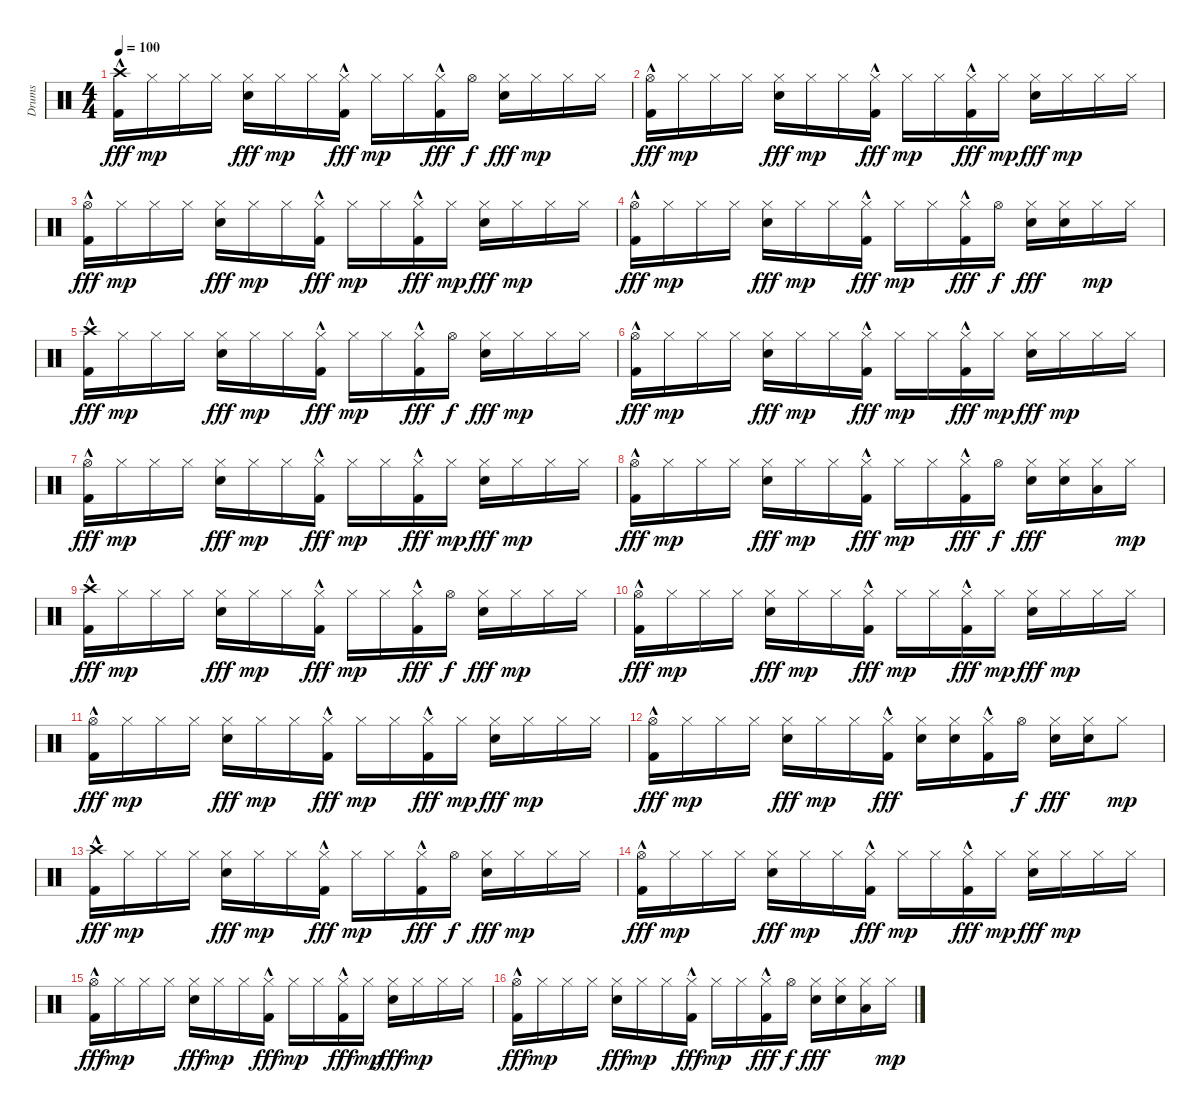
\track ("Drums" "Drums") {instrument percussion}
\staff {score}
\articulation defaults
\ts (4 4)
\tempo 100
\clef neutral
\ks c
("Crash high (hit)" "Kick (hit) 2"{hac}).16{dy fff} "Hi-Hat (closed)".16{dy mp} "Hi-Hat (closed)".16 "Hi-Hat (closed)".16 ("Hi-Hat (closed)" "Snare (hit) 2").16{dy fff} "Hi-Hat (closed)".16{dy mp} "Hi-Hat (closed)".16 ("Hi-Hat (closed)" "Kick (hit) 2"{hac}).16{dy fff} "Hi-Hat (closed)".16{dy mp} "Hi-Hat (closed)".16 ("Hi-Hat (closed)" "Kick (hit) 2"{hac}).16{dy fff} "Hi-Hat (open)".16{dy f} ("Hi-Hat (closed)" "Snare (hit) 2").16{dy fff} "Hi-Hat (closed)".16{dy mp} "Hi-Hat (closed)".16 "Hi-Hat (closed)".16 |
("Hi-Hat (open)" "Kick (hit) 2"{hac}).16{dy fff} "Hi-Hat (closed)".16{dy mp} "Hi-Hat (closed)".16 "Hi-Hat (closed)".16 ("Hi-Hat (closed)" "Snare (hit) 2").16{dy fff} "Hi-Hat (closed)".16{dy mp} "Hi-Hat (closed)".16 ("Hi-Hat (closed)" "Kick (hit) 2"{hac}).16{dy fff} "Hi-Hat (closed)".16{dy mp} "Hi-Hat (closed)".16 ("Hi-Hat (closed)" "Kick (hit) 2"{hac}).16{dy fff} "Hi-Hat (closed)".16{dy mp} ("Hi-Hat (closed)" "Snare (hit) 2").16{dy fff} "Hi-Hat (closed)".16{dy mp} "Hi-Hat (closed)".16 "Hi-Hat (closed)".16 |
("Hi-Hat (open)" "Kick (hit) 2"{hac}).16{dy fff} "Hi-Hat (closed)".16{dy mp} "Hi-Hat (closed)".16 "Hi-Hat (closed)".16 ("Hi-Hat (closed)" "Snare (hit) 2").16{dy fff} "Hi-Hat (closed)".16{dy mp} "Hi-Hat (closed)".16 ("Hi-Hat (closed)" "Kick (hit) 2"{hac}).16{dy fff} "Hi-Hat (closed)".16{dy mp} "Hi-Hat (closed)".16 ("Hi-Hat (closed)" "Kick (hit) 2"{hac}).16{dy fff} "Hi-Hat (closed)".16{dy mp} ("Hi-Hat (closed)" "Snare (hit) 2").16{dy fff} "Hi-Hat (closed)".16{dy mp} "Hi-Hat (closed)".16 "Hi-Hat (closed)".16 |
("Hi-Hat (open)" "Kick (hit) 2"{hac}).16{dy fff} "Hi-Hat (closed)".16{dy mp} "Hi-Hat (closed)".16 "Hi-Hat (closed)".16 ("Hi-Hat (closed)" "Snare (hit) 2").16{dy fff} "Hi-Hat (closed)".16{dy mp} "Hi-Hat (closed)".16 ("Hi-Hat (closed)" "Kick (hit) 2"{hac}).16{dy fff} "Hi-Hat (closed)".16{dy mp} "Hi-Hat (closed)".16 ("Hi-Hat (closed)" "Kick (hit) 2"{hac}).16{dy fff} "Hi-Hat (open)".16{dy f} ("Hi-Hat (closed)" "Snare (hit) 2").16{dy fff} ("Hi-Hat (closed)" "Snare (hit) 2").16 "Hi-Hat (closed)".16{dy mp} "Hi-Hat (closed)".16 |
("Crash high (hit)" "Kick (hit) 2"{hac}).16{dy fff} "Hi-Hat (closed)".16{dy mp} "Hi-Hat (closed)".16 "Hi-Hat (closed)".16 ("Hi-Hat (closed)" "Snare (hit) 2").16{dy fff} "Hi-Hat (closed)".16{dy mp} "Hi-Hat (closed)".16 ("Hi-Hat (closed)" "Kick (hit) 2"{hac}).16{dy fff} "Hi-Hat (closed)".16{dy mp} "Hi-Hat (closed)".16 ("Hi-Hat (closed)" "Kick (hit) 2"{hac}).16{dy fff} "Hi-Hat (open)".16{dy f} ("Hi-Hat (closed)" "Snare (hit) 2").16{dy fff} "Hi-Hat (closed)".16{dy mp} "Hi-Hat (closed)".16 "Hi-Hat (closed)".16 |
("Hi-Hat (open)" "Kick (hit) 2"{hac}).16{dy fff} "Hi-Hat (closed)".16{dy mp} "Hi-Hat (closed)".16 "Hi-Hat (closed)".16 ("Hi-Hat (closed)" "Snare (hit) 2").16{dy fff} "Hi-Hat (closed)".16{dy mp} "Hi-Hat (closed)".16 ("Hi-Hat (closed)" "Kick (hit) 2"{hac}).16{dy fff} "Hi-Hat (closed)".16{dy mp} "Hi-Hat (closed)".16 ("Hi-Hat (closed)" "Kick (hit) 2"{hac}).16{dy fff} "Hi-Hat (closed)".16{dy mp} ("Hi-Hat (closed)" "Snare (hit) 2").16{dy fff} "Hi-Hat (closed)".16{dy mp} "Hi-Hat (closed)".16 "Hi-Hat (closed)".16 |
("Hi-Hat (open)" "Kick (hit) 2"{hac}).16{dy fff} "Hi-Hat (closed)".16{dy mp} "Hi-Hat (closed)".16 "Hi-Hat (closed)".16 ("Hi-Hat (closed)" "Snare (hit) 2").16{dy fff} "Hi-Hat (closed)".16{dy mp} "Hi-Hat (closed)".16 ("Hi-Hat (closed)" "Kick (hit) 2"{hac}).16{dy fff} "Hi-Hat (closed)".16{dy mp} "Hi-Hat (closed)".16 ("Hi-Hat (closed)" "Kick (hit) 2"{hac}).16{dy fff} "Hi-Hat (closed)".16{dy mp} ("Hi-Hat (closed)" "Snare (hit) 2").16{dy fff} "Hi-Hat (closed)".16{dy mp} "Hi-Hat (closed)".16 "Hi-Hat (closed)".16 |
("Hi-Hat (open)" "Kick (hit) 2"{hac}).16{dy fff} "Hi-Hat (closed)".16{dy mp} "Hi-Hat (closed)".16 "Hi-Hat (closed)".16 ("Hi-Hat (closed)" "Snare (hit) 2").16{dy fff} "Hi-Hat (closed)".16{dy mp} "Hi-Hat (closed)".16 ("Hi-Hat (closed)" "Kick (hit) 2"{hac}).16{dy fff} "Hi-Hat (closed)".16{dy mp} "Hi-Hat (closed)".16 ("Hi-Hat (closed)" "Kick (hit) 2"{hac}).16{dy fff} "Hi-Hat (open)".16{dy f} ("Hi-Hat (closed)" "Snare (hit) 2").16{dy fff} ("Hi-Hat (closed)" "Snare (hit) 2").16 ("Hi-Hat (closed)" "Low Floor Tom (hit)").16 "Hi-Hat (closed)".16{dy mp} |
("Crash high (hit)" "Kick (hit) 2"{hac}).16{dy fff} "Hi-Hat (closed)".16{dy mp} "Hi-Hat (closed)".16 "Hi-Hat (closed)".16 ("Hi-Hat (closed)" "Snare (hit) 2").16{dy fff} "Hi-Hat (closed)".16{dy mp} "Hi-Hat (closed)".16 ("Hi-Hat (closed)" "Kick (hit) 2"{hac}).16{dy fff} "Hi-Hat (closed)".16{dy mp} "Hi-Hat (closed)".16 ("Hi-Hat (closed)" "Kick (hit) 2"{hac}).16{dy fff} "Hi-Hat (open)".16{dy f} ("Hi-Hat (closed)" "Snare (hit) 2").16{dy fff} "Hi-Hat (closed)".16{dy mp} "Hi-Hat (closed)".16 "Hi-Hat (closed)".16 |
("Hi-Hat (open)" "Kick (hit) 2"{hac}).16{dy fff} "Hi-Hat (closed)".16{dy mp} "Hi-Hat (closed)".16 "Hi-Hat (closed)".16 ("Hi-Hat (closed)" "Snare (hit) 2").16{dy fff} "Hi-Hat (closed)".16{dy mp} "Hi-Hat (closed)".16 ("Hi-Hat (closed)" "Kick (hit) 2"{hac}).16{dy fff} "Hi-Hat (closed)".16{dy mp} "Hi-Hat (closed)".16 ("Hi-Hat (closed)" "Kick (hit) 2"{hac}).16{dy fff} "Hi-Hat (closed)".16{dy mp} ("Hi-Hat (closed)" "Snare (hit) 2").16{dy fff} "Hi-Hat (closed)".16{dy mp} "Hi-Hat (closed)".16 "Hi-Hat (closed)".16 |
("Hi-Hat (open)" "Kick (hit) 2"{hac}).16{dy fff} "Hi-Hat (closed)".16{dy mp} "Hi-Hat (closed)".16 "Hi-Hat (closed)".16 ("Hi-Hat (closed)" "Snare (hit) 2").16{dy fff} "Hi-Hat (closed)".16{dy mp} "Hi-Hat (closed)".16 ("Hi-Hat (closed)" "Kick (hit) 2"{hac}).16{dy fff} "Hi-Hat (closed)".16{dy mp} "Hi-Hat (closed)".16 ("Hi-Hat (closed)" "Kick (hit) 2"{hac}).16{dy fff} "Hi-Hat (closed)".16{dy mp} ("Hi-Hat (closed)" "Snare (hit) 2").16{dy fff} "Hi-Hat (closed)".16{dy mp} "Hi-Hat (closed)".16 "Hi-Hat (closed)".16 |
("Hi-Hat (open)" "Kick (hit) 2"{hac}).16{dy fff} "Hi-Hat (closed)".16{dy mp} "Hi-Hat (closed)".16 "Hi-Hat (closed)".16 ("Hi-Hat (closed)" "Snare (hit) 2").16{dy fff} "Hi-Hat (closed)".16{dy mp} "Hi-Hat (closed)".16 ("Hi-Hat (closed)" "Kick (hit) 2"{hac}).16{dy fff} ("Hi-Hat (closed)" "Snare (hit) 2").16 ("Hi-Hat (closed)" "Snare (hit) 2").16 ("Hi-Hat (closed)" "Kick (hit) 2"{hac}).16 "Hi-Hat (open)".16{dy f} ("Hi-Hat (closed)" "Snare (hit) 2").16{dy fff} ("Hi-Hat (closed)" "Snare (hit) 2").16 "Hi-Hat (closed)".8{dy mp} |
("Crash high (hit)" "Kick (hit) 2"{hac}).16{dy fff} "Hi-Hat (closed)".16{dy mp} "Hi-Hat (closed)".16 "Hi-Hat (closed)".16 ("Hi-Hat (closed)" "Snare (hit) 2").16{dy fff} "Hi-Hat (closed)".16{dy mp} "Hi-Hat (closed)".16 ("Hi-Hat (closed)" "Kick (hit) 2"{hac}).16{dy fff} "Hi-Hat (closed)".16{dy mp} "Hi-Hat (closed)".16 ("Hi-Hat (closed)" "Kick (hit) 2"{hac}).16{dy fff} "Hi-Hat (open)".16{dy f} ("Hi-Hat (closed)" "Snare (hit) 2").16{dy fff} "Hi-Hat (closed)".16{dy mp} "Hi-Hat (closed)".16 "Hi-Hat (closed)".16 |
("Hi-Hat (open)" "Kick (hit) 2"{hac}).16{dy fff} "Hi-Hat (closed)".16{dy mp} "Hi-Hat (closed)".16 "Hi-Hat (closed)".16 ("Hi-Hat (closed)" "Snare (hit) 2").16{dy fff} "Hi-Hat (closed)".16{dy mp} "Hi-Hat (closed)".16 ("Hi-Hat (closed)" "Kick (hit) 2"{hac}).16{dy fff} "Hi-Hat (closed)".16{dy mp} "Hi-Hat (closed)".16 ("Hi-Hat (closed)" "Kick (hit) 2"{hac}).16{dy fff} "Hi-Hat (closed)".16{dy mp} ("Hi-Hat (closed)" "Snare (hit) 2").16{dy fff} "Hi-Hat (closed)".16{dy mp} "Hi-Hat (closed)".16 "Hi-Hat (closed)".16 |
("Hi-Hat (open)" "Kick (hit) 2"{hac}).16{dy fff} "Hi-Hat (closed)".16{dy mp} "Hi-Hat (closed)".16 "Hi-Hat (closed)".16 ("Hi-Hat (closed)" "Snare (hit) 2").16{dy fff} "Hi-Hat (closed)".16{dy mp} "Hi-Hat (closed)".16 ("Hi-Hat (closed)" "Kick (hit) 2"{hac}).16{dy fff} "Hi-Hat (closed)".16{dy mp} "Hi-Hat (closed)".16 ("Hi-Hat (closed)" "Kick (hit) 2"{hac}).16{dy fff} "Hi-Hat (closed)".16{dy mp} ("Hi-Hat (closed)" "Snare (hit) 2").16{dy fff} "Hi-Hat (closed)".16{dy mp} "Hi-Hat (closed)".16 "Hi-Hat (closed)".16 |
("Hi-Hat (open)" "Kick (hit) 2"{hac}).16{dy fff} "Hi-Hat (closed)".16{dy mp} "Hi-Hat (closed)".16 "Hi-Hat (closed)".16 ("Hi-Hat (closed)" "Snare (hit) 2").16{dy fff} "Hi-Hat (closed)".16{dy mp} "Hi-Hat (closed)".16 ("Hi-Hat (closed)" "Kick (hit) 2"{hac}).16{dy fff} "Hi-Hat (closed)".16{dy mp} "Hi-Hat (closed)".16 ("Hi-Hat (closed)" "Kick (hit) 2"{hac}).16{dy fff} "Hi-Hat (open)".16{dy f} ("Hi-Hat (closed)" "Snare (hit) 2").16{dy fff} ("Hi-Hat (closed)" "Snare (hit) 2").16 ("Hi-Hat (closed)" "Low Floor Tom (hit)").16 "Hi-Hat (closed)".16{dy mp}
